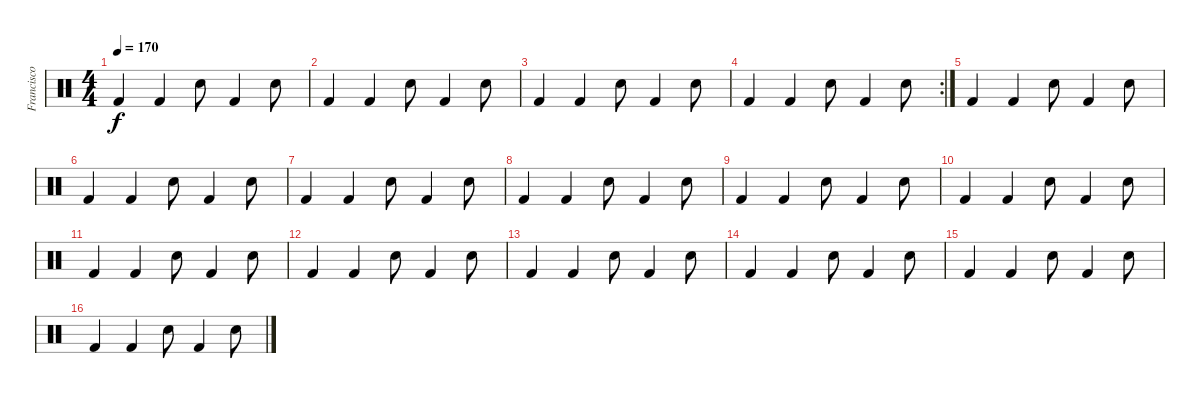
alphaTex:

\track ("Francisco (batería)" "Francisco ") {instrument percussion}
\staff {score}
\articulation defaults
\ts (4 4)
\tempo 170
\clef neutral
\ks c "Kick (hit) 2".4{dy f} "Kick (hit) 2".4 "Hand Clap (hit)".8 "Kick (hit) 2".4 "Hand Clap (hit)".8
|
"Kick (hit) 2".4 "Kick (hit) 2".4 "Hand Clap (hit)".8 "Kick (hit) 2".4 "Hand Clap (hit)".8 |
"Kick (hit) 2".4 "Kick (hit) 2".4 "Hand Clap (hit)".8 "Kick (hit) 2".4 "Hand Clap (hit)".8 |
\rc 2 "Kick (hit) 2".4 "Kick (hit) 2".4 "Hand Clap (hit)".8 "Kick (hit) 2".4 "Hand Clap (hit)".8
|
"Kick (hit) 2".4 "Kick (hit) 2".4 "Hand Clap (hit)".8 "Kick (hit) 2".4 "Hand Clap (hit)".8 |
"Kick (hit) 2".4 "Kick (hit) 2".4 "Hand Clap (hit)".8 "Kick (hit) 2".4 "Hand Clap (hit)".8 |
"Kick (hit) 2".4 "Kick (hit) 2".4 "Hand Clap (hit)".8 "Kick (hit) 2".4 "Hand Clap (hit)".8 |
"Kick (hit) 2".4 "Kick (hit) 2".4 "Hand Clap (hit)".8 "Kick (hit) 2".4 "Hand Clap (hit)".8 |
"Kick (hit) 2".4 "Kick (hit) 2".4 "Hand Clap (hit)".8 "Kick (hit) 2".4 "Hand Clap (hit)".8 |
"Kick (hit) 2".4 "Kick (hit) 2".4 "Hand Clap (hit)".8 "Kick (hit) 2".4 "Hand Clap (hit)".8 |
"Kick (hit) 2".4 "Kick (hit) 2".4 "Hand Clap (hit)".8 "Kick (hit) 2".4 "Hand Clap (hit)".8 |
"Kick (hit) 2".4 "Kick (hit) 2".4 "Hand Clap (hit)".8 "Kick (hit) 2".4 "Hand Clap (hit)".8 |
"Kick (hit) 2".4 "Kick (hit) 2".4 "Hand Clap (hit)".8 "Kick (hit) 2".4 "Hand Clap (hit)".8 |
"Kick (hit) 2".4 "Kick (hit) 2".4 "Hand Clap (hit)".8 "Kick (hit) 2".4 "Hand Clap (hit)".8 |
"Kick (hit) 2".4 "Kick (hit) 2".4 "Hand Clap (hit)".8 "Kick (hit) 2".4 "Hand Clap (hit)".8 |
"Kick (hit) 2".4 "Kick (hit) 2".4 "Hand Clap (hit)".8 "Kick (hit) 2".4 "Hand Clap (hit)".8
